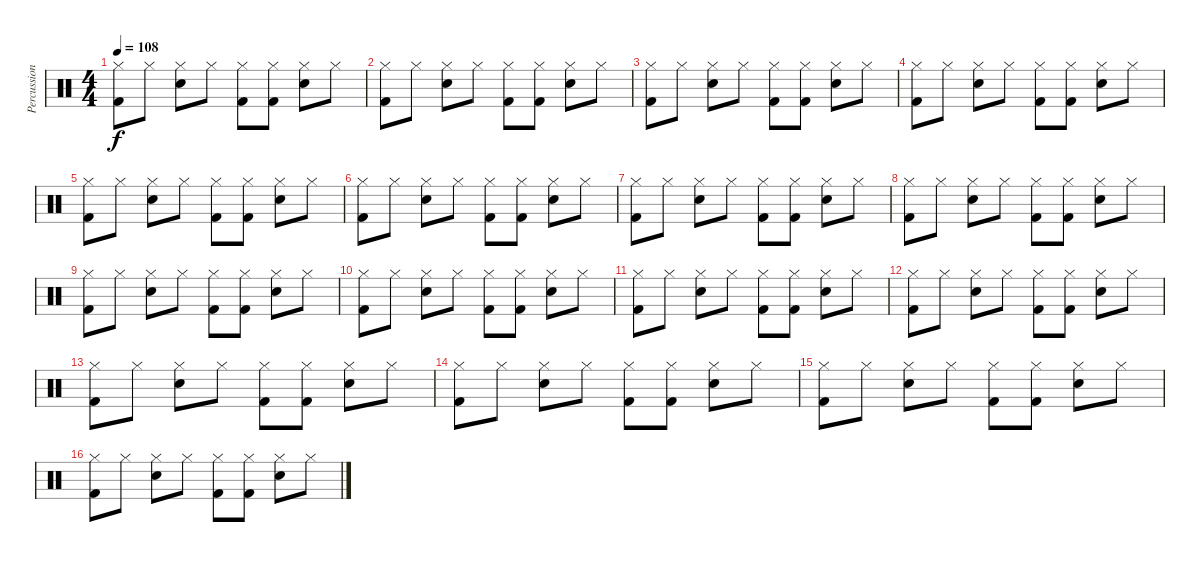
\track ("Percussion" "Percussion") {instrument percussion}
\staff {score}
\articulation defaults
\ts (4 4)
\tempo 108
\clef neutral
\ks c
("Hi-Hat (closed)" "Kick (hit) 2").8{dy f} "Hi-Hat (closed)".8 ("Hi-Hat (closed)" "Electric Snare (hit)").8 "Hi-Hat (closed)".8 ("Hi-Hat (closed)" "Kick (hit) 2").8 ("Hi-Hat (closed)" "Kick (hit) 2").8 ("Hi-Hat (closed)" "Electric Snare (hit)").8 "Hi-Hat (closed)".8 |
("Hi-Hat (closed)" "Kick (hit) 2").8 "Hi-Hat (closed)".8 ("Hi-Hat (closed)" "Electric Snare (hit)").8 "Hi-Hat (closed)".8 ("Hi-Hat (closed)" "Kick (hit) 2").8 ("Hi-Hat (closed)" "Kick (hit) 2").8 ("Hi-Hat (closed)" "Electric Snare (hit)").8 "Hi-Hat (closed)".8 |
("Hi-Hat (closed)" "Kick (hit) 2").8 "Hi-Hat (closed)".8 ("Hi-Hat (closed)" "Electric Snare (hit)").8 "Hi-Hat (closed)".8 ("Hi-Hat (closed)" "Kick (hit) 2").8 ("Hi-Hat (closed)" "Kick (hit) 2").8 ("Hi-Hat (closed)" "Electric Snare (hit)").8 "Hi-Hat (closed)".8 |
("Hi-Hat (closed)" "Kick (hit) 2").8 "Hi-Hat (closed)".8 ("Hi-Hat (closed)" "Electric Snare (hit)").8 "Hi-Hat (closed)".8 ("Hi-Hat (closed)" "Kick (hit) 2").8 ("Hi-Hat (closed)" "Kick (hit) 2").8 ("Hi-Hat (closed)" "Electric Snare (hit)").8 "Hi-Hat (closed)".8 |
("Hi-Hat (closed)" "Kick (hit) 2").8 "Hi-Hat (closed)".8 ("Hi-Hat (closed)" "Electric Snare (hit)").8 "Hi-Hat (closed)".8 ("Hi-Hat (closed)" "Kick (hit) 2").8 ("Hi-Hat (closed)" "Kick (hit) 2").8 ("Hi-Hat (closed)" "Electric Snare (hit)").8 "Hi-Hat (closed)".8 |
("Hi-Hat (closed)" "Kick (hit) 2").8 "Hi-Hat (closed)".8 ("Hi-Hat (closed)" "Electric Snare (hit)").8 "Hi-Hat (closed)".8 ("Hi-Hat (closed)" "Kick (hit) 2").8 ("Hi-Hat (closed)" "Kick (hit) 2").8 ("Hi-Hat (closed)" "Electric Snare (hit)").8 "Hi-Hat (closed)".8 |
("Hi-Hat (closed)" "Kick (hit) 2").8 "Hi-Hat (closed)".8 ("Hi-Hat (closed)" "Electric Snare (hit)").8 "Hi-Hat (closed)".8 ("Hi-Hat (closed)" "Kick (hit) 2").8 ("Hi-Hat (closed)" "Kick (hit) 2").8 ("Hi-Hat (closed)" "Electric Snare (hit)").8 "Hi-Hat (closed)".8 |
("Hi-Hat (closed)" "Kick (hit) 2").8 "Hi-Hat (closed)".8 ("Hi-Hat (closed)" "Electric Snare (hit)").8 "Hi-Hat (closed)".8 ("Hi-Hat (closed)" "Kick (hit) 2").8 ("Hi-Hat (closed)" "Kick (hit) 2").8 ("Hi-Hat (closed)" "Electric Snare (hit)").8 "Hi-Hat (closed)".8 |
("Hi-Hat (closed)" "Kick (hit) 2").8 "Hi-Hat (closed)".8 ("Hi-Hat (closed)" "Electric Snare (hit)").8 "Hi-Hat (closed)".8 ("Hi-Hat (closed)" "Kick (hit) 2").8 ("Hi-Hat (closed)" "Kick (hit) 2").8 ("Hi-Hat (closed)" "Electric Snare (hit)").8 "Hi-Hat (closed)".8 |
("Hi-Hat (closed)" "Kick (hit) 2").8 "Hi-Hat (closed)".8 ("Hi-Hat (closed)" "Electric Snare (hit)").8 "Hi-Hat (closed)".8 ("Hi-Hat (closed)" "Kick (hit) 2").8 ("Hi-Hat (closed)" "Kick (hit) 2").8 ("Hi-Hat (closed)" "Electric Snare (hit)").8 "Hi-Hat (closed)".8 |
("Hi-Hat (closed)" "Kick (hit) 2").8 "Hi-Hat (closed)".8 ("Hi-Hat (closed)" "Electric Snare (hit)").8 "Hi-Hat (closed)".8 ("Hi-Hat (closed)" "Kick (hit) 2").8 ("Hi-Hat (closed)" "Kick (hit) 2").8 ("Hi-Hat (closed)" "Electric Snare (hit)").8 "Hi-Hat (closed)".8 |
("Hi-Hat (closed)" "Kick (hit) 2").8 "Hi-Hat (closed)".8 ("Hi-Hat (closed)" "Electric Snare (hit)").8 "Hi-Hat (closed)".8 ("Hi-Hat (closed)" "Kick (hit) 2").8 ("Hi-Hat (closed)" "Kick (hit) 2").8 ("Hi-Hat (closed)" "Electric Snare (hit)").8 "Hi-Hat (closed)".8 |
("Hi-Hat (closed)" "Kick (hit) 2").8 "Hi-Hat (closed)".8 ("Hi-Hat (closed)" "Electric Snare (hit)").8 "Hi-Hat (closed)".8 ("Hi-Hat (closed)" "Kick (hit) 2").8 ("Hi-Hat (closed)" "Kick (hit) 2").8 ("Hi-Hat (closed)" "Electric Snare (hit)").8 "Hi-Hat (closed)".8 |
("Hi-Hat (closed)" "Kick (hit) 2").8 "Hi-Hat (closed)".8 ("Hi-Hat (closed)" "Electric Snare (hit)").8 "Hi-Hat (closed)".8 ("Hi-Hat (closed)" "Kick (hit) 2").8 ("Hi-Hat (closed)" "Kick (hit) 2").8 ("Hi-Hat (closed)" "Electric Snare (hit)").8 "Hi-Hat (closed)".8 |
("Hi-Hat (closed)" "Kick (hit) 2").8 "Hi-Hat (closed)".8 ("Hi-Hat (closed)" "Electric Snare (hit)").8 "Hi-Hat (closed)".8 ("Hi-Hat (closed)" "Kick (hit) 2").8 ("Hi-Hat (closed)" "Kick (hit) 2").8 ("Hi-Hat (closed)" "Electric Snare (hit)").8 "Hi-Hat (closed)".8 |
("Hi-Hat (closed)" "Kick (hit) 2").8 "Hi-Hat (closed)".8 ("Hi-Hat (closed)" "Electric Snare (hit)").8 "Hi-Hat (closed)".8 ("Hi-Hat (closed)" "Kick (hit) 2").8 ("Hi-Hat (closed)" "Kick (hit) 2").8 ("Hi-Hat (closed)" "Electric Snare (hit)").8 "Hi-Hat (closed)".8
